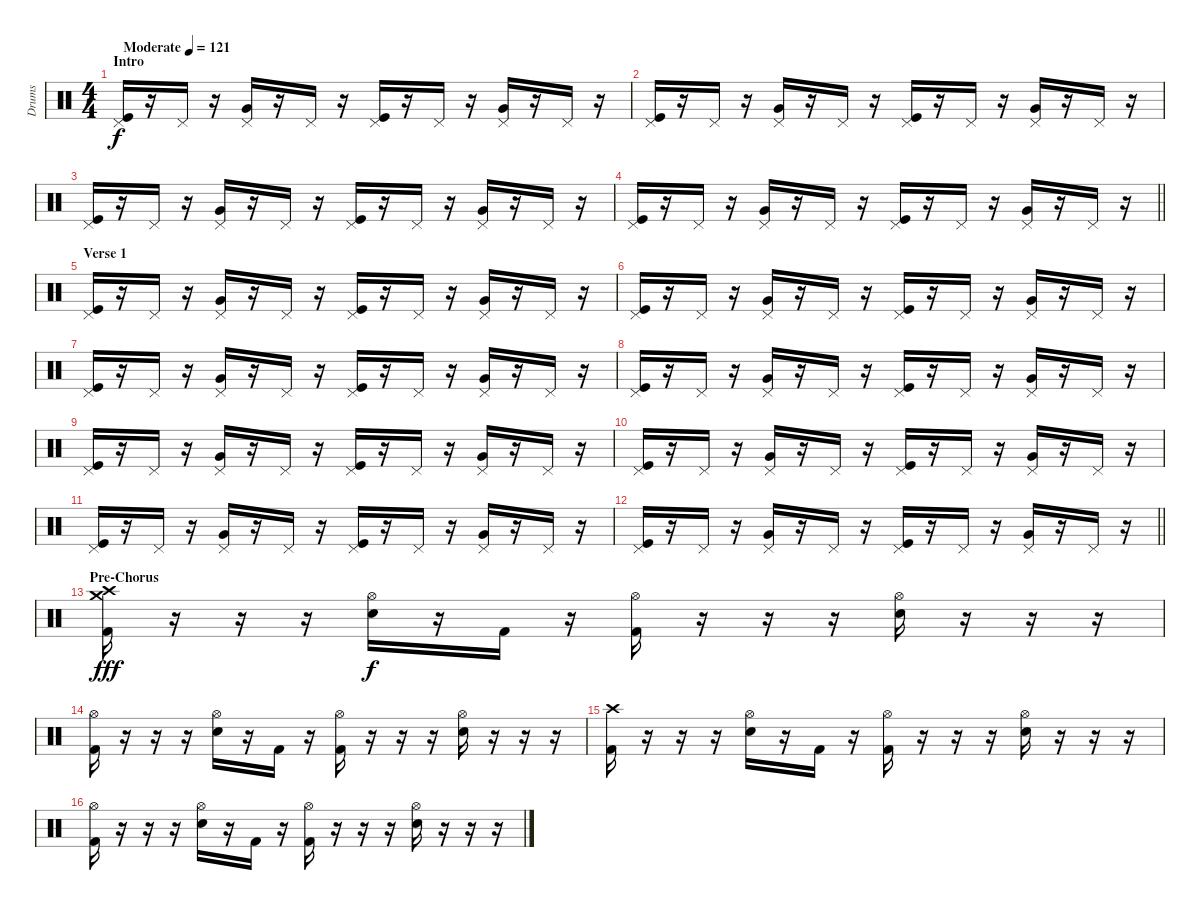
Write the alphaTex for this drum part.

\track ("Drums" "Drums") {instrument percussion}
\staff {score}
\articulation defaults
\ts (4 4)
\section ("" "Intro")
\tempo (121 "Moderate")
\clef neutral
\ks c
("Pedal Hi-Hat (hit)" "Kick (hit)").16{dy f} r.16 "Pedal Hi-Hat (hit)".16 r.16 ("Pedal Hi-Hat (hit)" "Very Low Tom (hit)").16 r.16 "Pedal Hi-Hat (hit)".16 r.16 ("Pedal Hi-Hat (hit)" "Kick (hit)").16 r.16 "Pedal Hi-Hat (hit)".16 r.16 ("Pedal Hi-Hat (hit)" "Very Low Tom (hit)").16 r.16 "Pedal Hi-Hat (hit)".16 r.16 |
("Pedal Hi-Hat (hit)" "Kick (hit)").16 r.16 "Pedal Hi-Hat (hit)".16 r.16 ("Pedal Hi-Hat (hit)" "Very Low Tom (hit)").16 r.16 "Pedal Hi-Hat (hit)".16 r.16 ("Pedal Hi-Hat (hit)" "Kick (hit)").16 r.16 "Pedal Hi-Hat (hit)".16 r.16 ("Pedal Hi-Hat (hit)" "Very Low Tom (hit)").16 r.16 "Pedal Hi-Hat (hit)".16 r.16 |
("Pedal Hi-Hat (hit)" "Kick (hit)").16 r.16 "Pedal Hi-Hat (hit)".16 r.16 ("Pedal Hi-Hat (hit)" "Very Low Tom (hit)").16 r.16 "Pedal Hi-Hat (hit)".16 r.16 ("Pedal Hi-Hat (hit)" "Kick (hit)").16 r.16 "Pedal Hi-Hat (hit)".16 r.16 ("Pedal Hi-Hat (hit)" "Very Low Tom (hit)").16 r.16 "Pedal Hi-Hat (hit)".16 r.16 |
\barLineRight lightlight
("Pedal Hi-Hat (hit)" "Kick (hit)").16 r.16 "Pedal Hi-Hat (hit)".16 r.16 ("Pedal Hi-Hat (hit)" "Very Low Tom (hit)").16 r.16 "Pedal Hi-Hat (hit)".16 r.16 ("Pedal Hi-Hat (hit)" "Kick (hit)").16 r.16 "Pedal Hi-Hat (hit)".16 r.16 ("Pedal Hi-Hat (hit)" "Very Low Tom (hit)").16 r.16 "Pedal Hi-Hat (hit)".16 r.16 |
\section ("" "Verse 1")
("Pedal Hi-Hat (hit)" "Kick (hit)").16 r.16 "Pedal Hi-Hat (hit)".16 r.16 ("Pedal Hi-Hat (hit)" "Very Low Tom (hit)").16 r.16 "Pedal Hi-Hat (hit)".16 r.16 ("Pedal Hi-Hat (hit)" "Kick (hit)").16 r.16 "Pedal Hi-Hat (hit)".16 r.16 ("Pedal Hi-Hat (hit)" "Very Low Tom (hit)").16 r.16 "Pedal Hi-Hat (hit)".16 r.16 |
("Pedal Hi-Hat (hit)" "Kick (hit)").16 r.16 "Pedal Hi-Hat (hit)".16 r.16 ("Pedal Hi-Hat (hit)" "Very Low Tom (hit)").16 r.16 "Pedal Hi-Hat (hit)".16 r.16 ("Pedal Hi-Hat (hit)" "Kick (hit)").16 r.16 "Pedal Hi-Hat (hit)".16 r.16 ("Pedal Hi-Hat (hit)" "Very Low Tom (hit)").16 r.16 "Pedal Hi-Hat (hit)".16 r.16 |
("Pedal Hi-Hat (hit)" "Kick (hit)").16 r.16 "Pedal Hi-Hat (hit)".16 r.16 ("Pedal Hi-Hat (hit)" "Very Low Tom (hit)").16 r.16 "Pedal Hi-Hat (hit)".16 r.16 ("Pedal Hi-Hat (hit)" "Kick (hit)").16 r.16 "Pedal Hi-Hat (hit)".16 r.16 ("Pedal Hi-Hat (hit)" "Very Low Tom (hit)").16 r.16 "Pedal Hi-Hat (hit)".16 r.16 |
("Pedal Hi-Hat (hit)" "Kick (hit)").16 r.16 "Pedal Hi-Hat (hit)".16 r.16 ("Pedal Hi-Hat (hit)" "Very Low Tom (hit)").16 r.16 "Pedal Hi-Hat (hit)".16 r.16 ("Pedal Hi-Hat (hit)" "Kick (hit)").16 r.16 "Pedal Hi-Hat (hit)".16 r.16 ("Pedal Hi-Hat (hit)" "Very Low Tom (hit)").16 r.16 "Pedal Hi-Hat (hit)".16 r.16 |
("Pedal Hi-Hat (hit)" "Kick (hit)").16 r.16 "Pedal Hi-Hat (hit)".16 r.16 ("Pedal Hi-Hat (hit)" "Very Low Tom (hit)").16 r.16 "Pedal Hi-Hat (hit)".16 r.16 ("Pedal Hi-Hat (hit)" "Kick (hit)").16 r.16 "Pedal Hi-Hat (hit)".16 r.16 ("Pedal Hi-Hat (hit)" "Very Low Tom (hit)").16 r.16 "Pedal Hi-Hat (hit)".16 r.16 |
("Pedal Hi-Hat (hit)" "Kick (hit)").16 r.16 "Pedal Hi-Hat (hit)".16 r.16 ("Pedal Hi-Hat (hit)" "Very Low Tom (hit)").16 r.16 "Pedal Hi-Hat (hit)".16 r.16 ("Pedal Hi-Hat (hit)" "Kick (hit)").16 r.16 "Pedal Hi-Hat (hit)".16 r.16 ("Pedal Hi-Hat (hit)" "Very Low Tom (hit)").16 r.16 "Pedal Hi-Hat (hit)".16 r.16 |
("Pedal Hi-Hat (hit)" "Kick (hit)").16 r.16 "Pedal Hi-Hat (hit)".16 r.16 ("Pedal Hi-Hat (hit)" "Very Low Tom (hit)").16 r.16 "Pedal Hi-Hat (hit)".16 r.16 ("Pedal Hi-Hat (hit)" "Kick (hit)").16 r.16 "Pedal Hi-Hat (hit)".16 r.16 ("Pedal Hi-Hat (hit)" "Very Low Tom (hit)").16 r.16 "Pedal Hi-Hat (hit)".16 r.16 |
\barLineRight lightlight
("Pedal Hi-Hat (hit)" "Kick (hit)").16 r.16 "Pedal Hi-Hat (hit)".16 r.16 ("Pedal Hi-Hat (hit)" "Very Low Tom (hit)").16 r.16 "Pedal Hi-Hat (hit)".16 r.16 ("Pedal Hi-Hat (hit)" "Kick (hit)").16 r.16 "Pedal Hi-Hat (hit)".16 r.16 ("Pedal Hi-Hat (hit)" "Very Low Tom (hit)").16 r.16 "Pedal Hi-Hat (hit)".16 r.16 |
\section ("" "Pre-Chorus")
("Crash high (hit)" "Crash medium (hit)" "Kick (hit) 2").16{dy fff volume 14} r.16 r.16 r.16 ("Hi-Hat (open)" "Electric Snare (hit)").16{dy f} r.16 "Kick (hit) 2".16 r.16 ("Hi-Hat (open)" "Kick (hit) 2").16 r.16 r.16 r.16 ("Hi-Hat (open)" "Electric Snare (hit)").16 r.16 r.16 r.16 |
("Hi-Hat (open)" "Kick (hit) 2").16 r.16 r.16 r.16 ("Hi-Hat (open)" "Electric Snare (hit)").16 r.16 "Kick (hit) 2".16 r.16 ("Hi-Hat (open)" "Kick (hit) 2").16 r.16 r.16 r.16 ("Hi-Hat (open)" "Electric Snare (hit)").16 r.16 r.16 r.16 |
("Crash high (hit)" "Kick (hit) 2").16 r.16 r.16 r.16 ("Hi-Hat (open)" "Electric Snare (hit)").16 r.16 "Kick (hit) 2".16 r.16 ("Hi-Hat (open)" "Kick (hit) 2").16 r.16 r.16 r.16 ("Hi-Hat (open)" "Electric Snare (hit)").16 r.16 r.16 r.16 |
("Hi-Hat (open)" "Kick (hit) 2").16 r.16 r.16 r.16 ("Hi-Hat (open)" "Electric Snare (hit)").16 r.16 "Kick (hit) 2".16 r.16 ("Hi-Hat (open)" "Kick (hit) 2").16 r.16 r.16 r.16 ("Hi-Hat (open)" "Electric Snare (hit)").16 r.16 r.16 r.16
